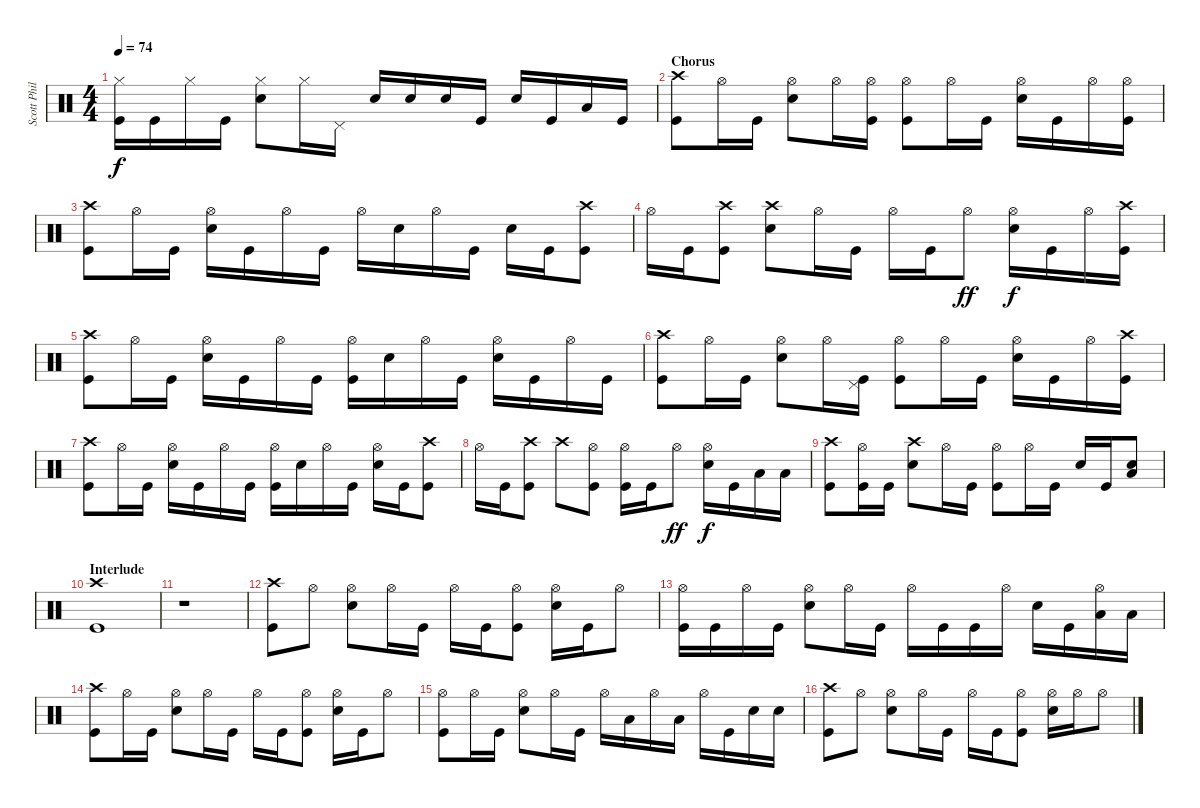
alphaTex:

\track ("Scott Phillips" "Scott Phil") {instrument percussion}
\staff {score}
\articulation defaults
\ts (4 4)
\tempo 74
\clef neutral
\ks c
("Hi-Hat (closed)" "Kick (hit)").16{dy f} "Kick (hit)".16 "Hi-Hat (closed)".16 "Kick (hit)".16 ("Hi-Hat (closed)" "Snare (hit) 2").8 "Hi-Hat (closed)".16 "Pedal Hi-Hat (hit)".16 "Snare (hit) 2".16 "Snare (hit) 2".16 "Snare (hit) 2".16 "Kick (hit)".16 "Snare (hit) 2".16 "Kick (hit)".16 "Low Tom (hit)".16 "Kick (hit)".16 |
\section ("" "Chorus")
("Crash high (hit)" "Kick (hit)").8 "Hi-Hat (open)".16 "Kick (hit)".16 ("Hi-Hat (open)" "Snare (hit) 2").8 "Hi-Hat (open)".16 ("Hi-Hat (open)" "Kick (hit)").16 ("Hi-Hat (open)" "Kick (hit)").8 "Hi-Hat (open)".16 "Kick (hit)".16 ("Hi-Hat (open)" "Snare (hit) 2").16 "Kick (hit)".16 "Hi-Hat (open)".16 ("Hi-Hat (open)" "Kick (hit)").16 |
("Crash high (hit)" "Kick (hit)").8 "Hi-Hat (open)".16 "Kick (hit)".16 ("Hi-Hat (open)" "Snare (hit) 2").16 "Kick (hit)".16 "Hi-Hat (open)".16 "Kick (hit)".16 "Hi-Hat (open)".16 "Snare (hit) 2".16 "Hi-Hat (open)".16 "Kick (hit)".16 "Snare (hit) 2".16 "Kick (hit)".16 ("Crash high (hit)" "Kick (hit)").8 |
"Hi-Hat (open)".16 "Kick (hit)".16 ("Crash high (hit)" "Kick (hit)").8 ("Crash high (hit)" "Snare (hit) 2").8 "Hi-Hat (open)".16 "Kick (hit)".16 "Hi-Hat (open)".16 "Kick (hit)".16 "Hi-Hat (open)".8{dy ff} ("Hi-Hat (open)" "Snare (hit) 2").16{dy f} "Kick (hit)".16 "Hi-Hat (open)".16 ("Crash high (hit)" "Kick (hit)").16 |
("Crash high (hit)" "Kick (hit)").8 "Hi-Hat (open)".16 "Kick (hit)".16 ("Hi-Hat (open)" "Snare (hit) 2").16 "Kick (hit)".16 "Hi-Hat (open)".16 "Kick (hit)".16 ("Hi-Hat (open)" "Kick (hit)").16 "Snare (hit) 2".16 "Hi-Hat (open)".16 "Kick (hit)".16 ("Hi-Hat (open)" "Snare (hit) 2").16 "Kick (hit)".16 "Hi-Hat (open)".16 "Kick (hit)".16 |
("Crash high (hit)" "Kick (hit)").8 "Hi-Hat (open)".16 "Kick (hit)".16 ("Hi-Hat (open)" "Snare (hit) 2").8 "Hi-Hat (open)".16 ("Pedal Hi-Hat (hit)" "Kick (hit)").16 ("Hi-Hat (open)" "Kick (hit)").8 "Hi-Hat (open)".16 "Kick (hit)".16 ("Hi-Hat (open)" "Snare (hit) 2").16 "Kick (hit)".16 "Hi-Hat (open)".16 ("Crash high (hit)" "Kick (hit)").16 |
("Crash high (hit)" "Kick (hit)").8 "Hi-Hat (open)".16 "Kick (hit)".16 ("Hi-Hat (open)" "Snare (hit) 2").16 "Kick (hit)".16 "Hi-Hat (open)".16 "Kick (hit)".16 ("Hi-Hat (open)" "Kick (hit)").16 "Snare (hit) 2".16 "Hi-Hat (open)".16 "Kick (hit)".16 ("Hi-Hat (open)" "Snare (hit) 2").16 "Kick (hit)".16 ("Crash high (hit)" "Kick (hit)").8 |
"Hi-Hat (open)".16 "Kick (hit)".16 ("Crash high (hit)" "Kick (hit)").8 "Crash high (hit)".8 ("Hi-Hat (open)" "Kick (hit)").8 ("Hi-Hat (open)" "Kick (hit)").16 "Kick (hit)".16 "Hi-Hat (open)".8{dy ff} ("Hi-Hat (open)" "Snare (hit) 2").16{dy f} "Kick (hit)".16 "Low Tom (hit)".16 "Low Tom (hit)".16 |
("Crash high (hit)" "Kick (hit)").8 ("Hi-Hat (open)" "Kick (hit)").16 "Kick (hit)".16 ("Crash high (hit)" "Snare (hit) 2").8 "Hi-Hat (open)".16 "Kick (hit)".16 ("Hi-Hat (open)" "Kick (hit)").8 "Hi-Hat (open)".16 "Kick (hit)".16 "Snare (hit) 2".16 "Kick (hit)".16 ("Low Tom (hit)" "Snare (hit) 2").8 |
\section ("" "Interlude")
("Crash high (hit)" "Kick (hit)").1 |
r.1 |
("Crash high (hit)" "Kick (hit)").8 "Hi-Hat (open)".8 ("Hi-Hat (open)" "Snare (hit) 2").8 "Hi-Hat (open)".16 "Kick (hit)".16 "Hi-Hat (open)".16 "Kick (hit)".16 ("Hi-Hat (open)" "Kick (hit)").8 ("Hi-Hat (open)" "Snare (hit) 2").16 "Kick (hit)".16 "Hi-Hat (open)".8 |
("Hi-Hat (open)" "Kick (hit)").16 "Kick (hit)".16 "Hi-Hat (open)".16 "Kick (hit)".16 ("Hi-Hat (open)" "Snare (hit) 2").8 "Hi-Hat (open)".16 "Kick (hit)".16 "Hi-Hat (open)".16 "Kick (hit)".16 "Kick (hit)".16 "Hi-Hat (open)".16 "Snare (hit) 2".16 "Kick (hit)".16 ("Hi-Hat (open)" "Low Tom (hit)").16 "Low Tom (hit)".16 |
("Crash high (hit)" "Kick (hit)").8 "Hi-Hat (open)".16 "Kick (hit)".16 ("Hi-Hat (open)" "Snare (hit) 2").8 "Hi-Hat (open)".16 "Kick (hit)".16 "Hi-Hat (open)".16 "Kick (hit)".16 ("Hi-Hat (open)" "Kick (hit)").8 ("Hi-Hat (open)" "Snare (hit) 2").16 "Kick (hit)".16 "Hi-Hat (open)".8 |
("Hi-Hat (open)" "Kick (hit)").8 "Hi-Hat (open)".16 "Kick (hit)".16 ("Hi-Hat (open)" "Snare (hit) 2").8 "Hi-Hat (open)".16 "Kick (hit)".16 "Hi-Hat (open)".16 "Low Tom (hit)".16 "Hi-Hat (open)".16 "Low Tom (hit)".16 "Hi-Hat (open)".16 "Kick (hit)".16 "Snare (hit) 2".16 "Snare (hit) 2".16 |
("Crash high (hit)" "Kick (hit)").8 "Hi-Hat (open)".8 ("Hi-Hat (open)" "Snare (hit) 2").8 "Hi-Hat (open)".16 "Kick (hit)".16 "Hi-Hat (open)".16 "Kick (hit)".16 ("Hi-Hat (open)" "Kick (hit)").8 ("Hi-Hat (open)" "Snare (hit) 2").16 "Hi-Hat (open)".16 "Hi-Hat (open)".8
